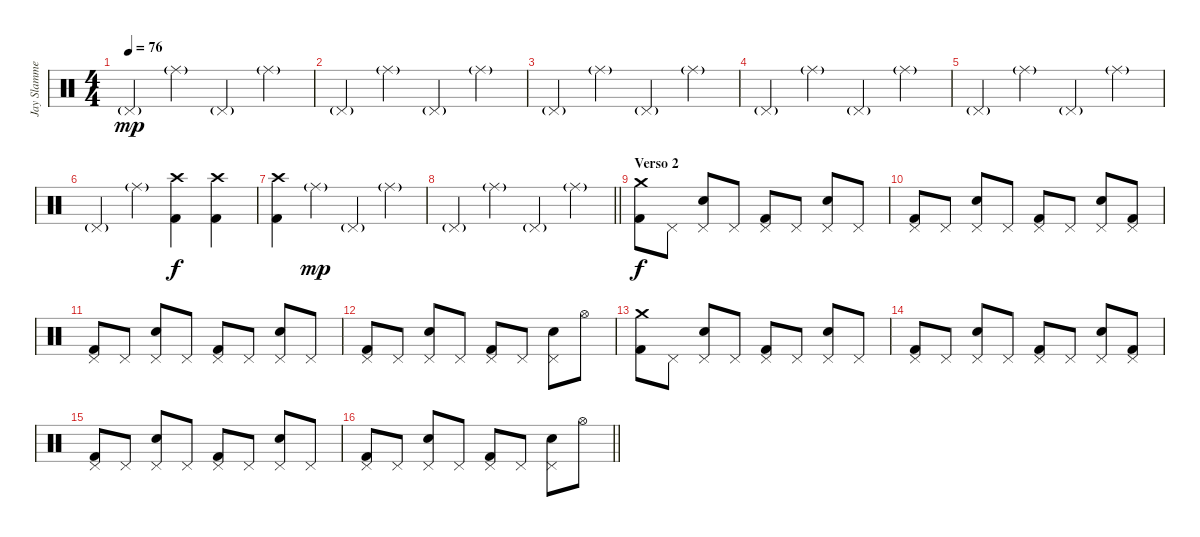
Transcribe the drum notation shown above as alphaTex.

\track ("Jay Slammer" "Jay Slamme") {instrument percussion}
\staff {score}
\articulation defaults
\ts (4 4)
\tempo 76
\clef neutral
\ks c "Pedal Hi-Hat (hit)"{g}.4{dy mp} "Ride (middle)"{g}.4 "Pedal Hi-Hat (hit)"{g}.4 "Ride (middle)"{g}.4
|
"Pedal Hi-Hat (hit)"{g}.4 "Ride (middle)"{g}.4 "Pedal Hi-Hat (hit)"{g}.4 "Ride (middle)"{g}.4 |
"Pedal Hi-Hat (hit)"{g}.4 "Ride (middle)"{g}.4 "Pedal Hi-Hat (hit)"{g}.4 "Ride (middle)"{g}.4 |
"Pedal Hi-Hat (hit)"{g}.4 "Ride (middle)"{g}.4 "Pedal Hi-Hat (hit)"{g}.4 "Ride (middle)"{g}.4 |
"Pedal Hi-Hat (hit)"{g}.4 "Ride (middle)"{g}.4 "Pedal Hi-Hat (hit)"{g}.4 "Ride (middle)"{g}.4 |
"Pedal Hi-Hat (hit)"{g}.4 "Ride (middle)"{g}.4 ("Crash high (hit)" "Kick (hit) 2").4{dy f} ("Crash high (hit)" "Kick (hit) 2").4 |
("Crash high (hit)" "Kick (hit) 2").4 "Ride (middle)"{g}.4{dy mp} "Pedal Hi-Hat (hit)"{g}.4 "Ride (middle)"{g}.4 |
\barLineRight lightlight "Pedal Hi-Hat (hit)"{g}.4 "Ride (middle)"{g}.4 "Pedal Hi-Hat (hit)"{g}.4 "Ride (middle)"{g}.4
|
\section ("" "Verso 2")
("Crash medium (hit)" "Kick (hit) 2").8{dy f} "Pedal Hi-Hat (hit)".8 ("Pedal Hi-Hat (hit)" "Electric Snare (hit)").8 "Pedal Hi-Hat (hit)".8 ("Pedal Hi-Hat (hit)" "Kick (hit) 2").8 "Pedal Hi-Hat (hit)".8 ("Pedal Hi-Hat (hit)" "Electric Snare (hit)").8 "Pedal Hi-Hat (hit)".8 |
("Pedal Hi-Hat (hit)" "Kick (hit) 2").8 "Pedal Hi-Hat (hit)".8 ("Pedal Hi-Hat (hit)" "Electric Snare (hit)").8 "Pedal Hi-Hat (hit)".8 ("Pedal Hi-Hat (hit)" "Kick (hit) 2").8 "Pedal Hi-Hat (hit)".8 ("Pedal Hi-Hat (hit)" "Electric Snare (hit)").8 ("Pedal Hi-Hat (hit)" "Kick (hit) 2").8 |
("Pedal Hi-Hat (hit)" "Kick (hit) 2").8 "Pedal Hi-Hat (hit)".8 ("Pedal Hi-Hat (hit)" "Electric Snare (hit)").8 "Pedal Hi-Hat (hit)".8 ("Pedal Hi-Hat (hit)" "Kick (hit) 2").8 "Pedal Hi-Hat (hit)".8 ("Pedal Hi-Hat (hit)" "Electric Snare (hit)").8 "Pedal Hi-Hat (hit)".8 |
("Pedal Hi-Hat (hit)" "Kick (hit) 2").8 "Pedal Hi-Hat (hit)".8 ("Pedal Hi-Hat (hit)" "Electric Snare (hit)").8 "Pedal Hi-Hat (hit)".8 ("Pedal Hi-Hat (hit)" "Kick (hit) 2").8 "Pedal Hi-Hat (hit)".8 ("Pedal Hi-Hat (hit)" "Electric Snare (hit)").8 "Hi-Hat (open)".8 |
("Crash medium (hit)" "Kick (hit) 2").8 "Pedal Hi-Hat (hit)".8 ("Pedal Hi-Hat (hit)" "Electric Snare (hit)").8 "Pedal Hi-Hat (hit)".8 ("Pedal Hi-Hat (hit)" "Kick (hit) 2").8 "Pedal Hi-Hat (hit)".8 ("Pedal Hi-Hat (hit)" "Electric Snare (hit)").8 "Pedal Hi-Hat (hit)".8 |
("Pedal Hi-Hat (hit)" "Kick (hit) 2").8 "Pedal Hi-Hat (hit)".8 ("Pedal Hi-Hat (hit)" "Electric Snare (hit)").8 "Pedal Hi-Hat (hit)".8 ("Pedal Hi-Hat (hit)" "Kick (hit) 2").8 "Pedal Hi-Hat (hit)".8 ("Pedal Hi-Hat (hit)" "Electric Snare (hit)").8 ("Pedal Hi-Hat (hit)" "Kick (hit) 2").8 |
("Pedal Hi-Hat (hit)" "Kick (hit) 2").8 "Pedal Hi-Hat (hit)".8 ("Pedal Hi-Hat (hit)" "Electric Snare (hit)").8 "Pedal Hi-Hat (hit)".8 ("Pedal Hi-Hat (hit)" "Kick (hit) 2").8 "Pedal Hi-Hat (hit)".8 ("Pedal Hi-Hat (hit)" "Electric Snare (hit)").8 "Pedal Hi-Hat (hit)".8 |
\barLineRight lightlight
("Pedal Hi-Hat (hit)" "Kick (hit) 2").8 "Pedal Hi-Hat (hit)".8 ("Pedal Hi-Hat (hit)" "Electric Snare (hit)").8 "Pedal Hi-Hat (hit)".8 ("Pedal Hi-Hat (hit)" "Kick (hit) 2").8 "Pedal Hi-Hat (hit)".8 ("Pedal Hi-Hat (hit)" "Electric Snare (hit)").8 "Hi-Hat (open)".8
